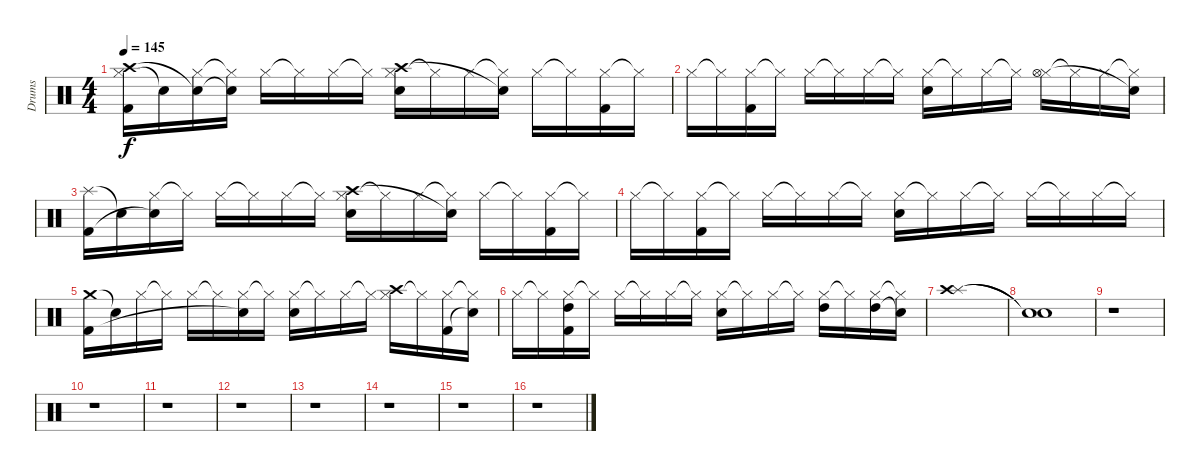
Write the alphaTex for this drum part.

\track ("Drums" "Drums") {instrument percussion}
\staff {score}
\articulation defaults
\ts (4 4)
\tempo 145
\clef neutral
\ks c
("Hi-Hat (closed)" "Crash high (hit)" "Kick (hit) 2").16{dy f} "Snare (hit)"{t}.16 ("Hi-Hat (closed)" "Snare (hit)"{t}).16 ("Hi-Hat (closed)"{t} "Snare (hit)"{t}).16 "Hi-Hat (closed)".16 "Hi-Hat (closed)"{t}.16 "Hi-Hat (closed)".16 "Hi-Hat (closed)"{t}.16 ("Hi-Hat (closed)" "Crash high (hit)" "Snare (hit) 2").16 "Hi-Hat (closed)"{t}.16 "Hi-Hat (closed)".16 ("Hi-Hat (closed)"{t} "Snare (hit)"{t}).16 "Hi-Hat (closed)".16 "Hi-Hat (closed)"{t}.16 ("Hi-Hat (closed)" "Kick (hit) 2").16 "Hi-Hat (closed)"{t}.16 |
"Hi-Hat (closed)".16 "Hi-Hat (closed)"{t}.16 ("Hi-Hat (closed)" "Kick (hit) 2").16 "Hi-Hat (closed)"{t}.16 "Hi-Hat (closed)".16 "Hi-Hat (closed)"{t}.16 "Hi-Hat (closed)".16 "Hi-Hat (closed)"{t}.16 ("Hi-Hat (closed)" "Snare (hit) 2").16 "Hi-Hat (closed)"{t}.16 "Hi-Hat (closed)".16 "Hi-Hat (closed)"{t}.16 ("Hi-Hat (closed)" "Hi-Hat (open)").16 "Hi-Hat (closed)"{t}.16 "Hi-Hat (closed)".16 ("Hi-Hat (closed)"{t} "Snare (hit)"{t}).16 |
("Splash (hit)" "Kick (hit) 2").16 "Snare (hit)"{t}.16 ("Hi-Hat (closed)" "Snare (hit)"{t}).16 "Hi-Hat (closed)"{t}.16 "Hi-Hat (closed)".16 "Hi-Hat (closed)"{t}.16 "Hi-Hat (closed)".16 "Hi-Hat (closed)"{t}.16 ("Hi-Hat (closed)" "Crash high (hit)" "Snare (hit) 2").16 "Hi-Hat (closed)"{t}.16 "Hi-Hat (closed)".16 ("Hi-Hat (closed)"{t} "Snare (hit)"{t}).16 "Hi-Hat (closed)".16 "Hi-Hat (closed)"{t}.16 ("Hi-Hat (closed)" "Kick (hit) 2").16 "Hi-Hat (closed)"{t}.16 |
"Hi-Hat (closed)".16 "Hi-Hat (closed)"{t}.16 ("Hi-Hat (closed)" "Kick (hit) 2").16 "Hi-Hat (closed)"{t}.16 "Hi-Hat (closed)".16 "Hi-Hat (closed)"{t}.16 "Hi-Hat (closed)".16 "Hi-Hat (closed)"{t}.16 ("Hi-Hat (closed)" "Snare (hit) 2").16 "Hi-Hat (closed)"{t}.16 "Hi-Hat (closed)".16 "Hi-Hat (closed)"{t}.16 "Hi-Hat (closed)".16 "Hi-Hat (closed)"{t}.16 "Hi-Hat (closed)".16 "Hi-Hat (closed)"{t}.16 |
("Crash medium (hit)" "Kick (hit) 2").16 "Snare (hit)"{t}.16 "Hi-Hat (closed)".16 "Hi-Hat (closed)"{t}.16 "Hi-Hat (closed)".16 "Hi-Hat (closed)"{t}.16 ("Hi-Hat (closed)" "Snare (hit)"{t}).16 "Hi-Hat (closed)"{t}.16 ("Hi-Hat (closed)" "Snare (hit) 2").16 "Hi-Hat (closed)"{t}.16 "Hi-Hat (closed)".16 "Hi-Hat (closed)"{t}.16 ("Hi-Hat (closed)" "Crash high (hit)").16 "Hi-Hat (closed)"{t}.16 ("Hi-Hat (closed)" "Kick (hit) 2").16 ("Hi-Hat (closed)"{t} "Snare (hit)"{t}).16 |
"Hi-Hat (closed)".16 "Hi-Hat (closed)"{t}.16 ("Hi-Hat (closed)" "High Tom (hit)" "Kick (hit) 2").16 "Hi-Hat (closed)"{t}.16 "Hi-Hat (closed)".16 "Hi-Hat (closed)"{t}.16 "Hi-Hat (closed)".16 "Hi-Hat (closed)"{t}.16 ("Hi-Hat (closed)" "Snare (hit) 2").16 "Hi-Hat (closed)"{t}.16 "Hi-Hat (closed)".16 "Hi-Hat (closed)"{t}.16 ("Hi-Hat (closed)" "High Tom (hit)").16 "Hi-Hat (closed)"{t}.16 ("Hi-Hat (closed)" "High Tom (hit)").16 ("Hi-Hat (closed)"{t} "Snare (hit)"{t}).16 |
("Splash (hit)" "Crash high (hit)").1 |
("Snare (hit)"{t} "Snare (hit)"{t}).1 |
r.1 |
r.1 |
r.1 |
r.1 |
r.1 |
r.1 |
r.1 |
r.1
